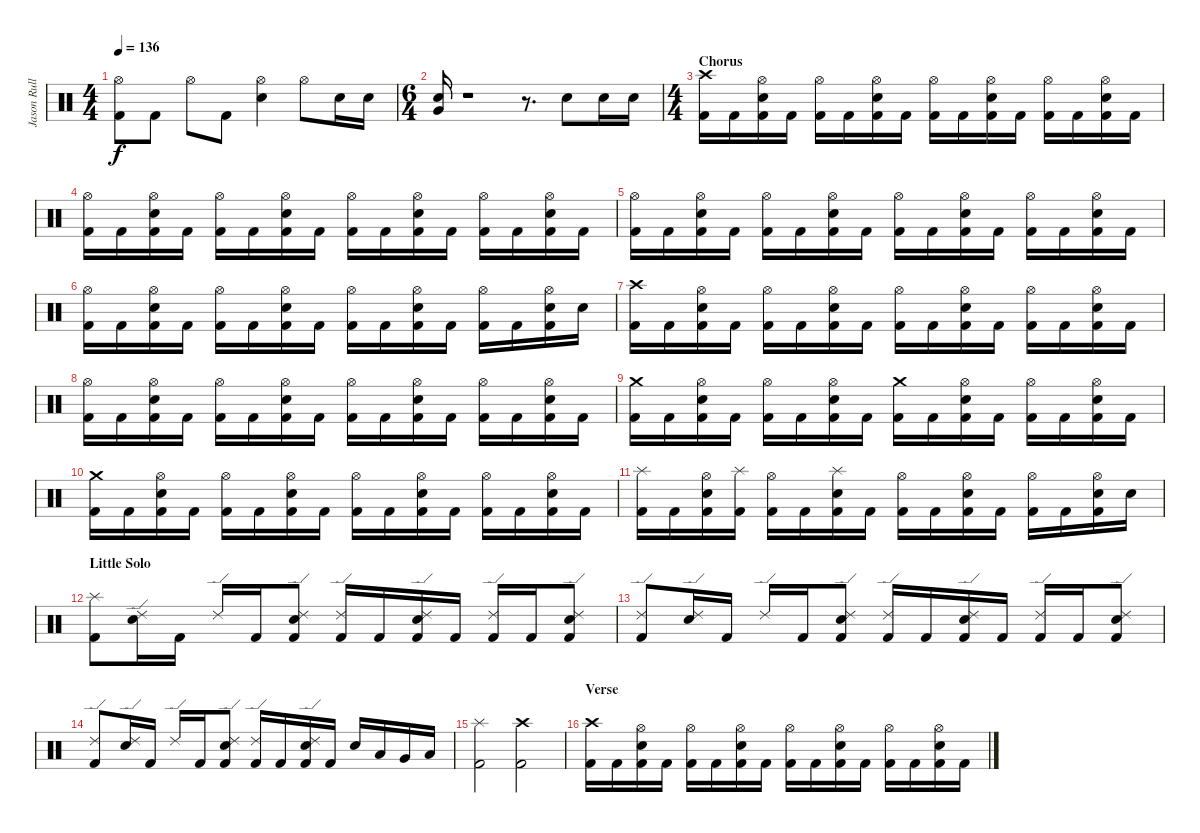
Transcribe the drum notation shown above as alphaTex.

\track ("Jason Rullo" "Jason Rull") {instrument percussion}
\staff {score}
\articulation defaults
\ts (4 4)
\tempo 136
\clef neutral
\ks c
("Kick (hit) 2" "Hi-Hat (open)").8{dy f} "Kick (hit) 2".8 "Hi-Hat (open)".8 "Kick (hit) 2".8 ("Electric Snare (hit)" "Hi-Hat (open)").4 "Hi-Hat (open)".8 "Electric Snare (hit)".16 "Electric Snare (hit)".16 |
\ts (6 4)
("Very Low Tom (hit)" "Electric Snare (hit)").16 r.1 r.8{d} "Electric Snare (hit)".8 "Electric Snare (hit)".16 "Electric Snare (hit)".16 |
\ts (4 4)
\section ("" "Chorus")
("Kick (hit) 2" "Crash high (hit)").16 "Kick (hit) 2".16 ("Hi-Hat (open)" "Electric Snare (hit)" "Kick (hit) 2").16 "Kick (hit) 2".16 ("Hi-Hat (open)" "Kick (hit) 2").16 "Kick (hit) 2".16 ("Hi-Hat (open)" "Electric Snare (hit)" "Kick (hit) 2").16 "Kick (hit) 2".16 ("Hi-Hat (open)" "Kick (hit) 2").16 "Kick (hit) 2".16 ("Hi-Hat (open)" "Electric Snare (hit)" "Kick (hit) 2").16 "Kick (hit) 2".16 ("Hi-Hat (open)" "Kick (hit) 2").16 "Kick (hit) 2".16 ("Hi-Hat (open)" "Electric Snare (hit)" "Kick (hit) 2").16 "Kick (hit) 2".16 |
("Kick (hit) 2" "Hi-Hat (open)").16 "Kick (hit) 2".16 ("Kick (hit) 2" "Electric Snare (hit)" "Hi-Hat (open)").16 "Kick (hit) 2".16 ("Kick (hit) 2" "Hi-Hat (open)").16 "Kick (hit) 2".16 ("Kick (hit) 2" "Electric Snare (hit)" "Hi-Hat (open)").16 "Kick (hit) 2".16 ("Kick (hit) 2" "Hi-Hat (open)").16 "Kick (hit) 2".16 ("Kick (hit) 2" "Electric Snare (hit)" "Hi-Hat (open)").16 "Kick (hit) 2".16 ("Kick (hit) 2" "Hi-Hat (open)").16 "Kick (hit) 2".16 ("Kick (hit) 2" "Electric Snare (hit)" "Hi-Hat (open)").16 "Kick (hit) 2".16 |
("Kick (hit) 2" "Hi-Hat (open)").16 "Kick (hit) 2".16 ("Kick (hit) 2" "Electric Snare (hit)" "Hi-Hat (open)").16 "Kick (hit) 2".16 ("Kick (hit) 2" "Hi-Hat (open)").16 "Kick (hit) 2".16 ("Kick (hit) 2" "Electric Snare (hit)" "Hi-Hat (open)").16 "Kick (hit) 2".16 ("Kick (hit) 2" "Hi-Hat (open)").16 "Kick (hit) 2".16 ("Kick (hit) 2" "Electric Snare (hit)" "Hi-Hat (open)").16 "Kick (hit) 2".16 ("Kick (hit) 2" "Hi-Hat (open)").16 "Kick (hit) 2".16 ("Kick (hit) 2" "Electric Snare (hit)" "Hi-Hat (open)").16 "Kick (hit) 2".16 |
("Kick (hit) 2" "Hi-Hat (open)").16 "Kick (hit) 2".16 ("Kick (hit) 2" "Electric Snare (hit)" "Hi-Hat (open)").16 "Kick (hit) 2".16 ("Kick (hit) 2" "Hi-Hat (open)").16 "Kick (hit) 2".16 ("Kick (hit) 2" "Electric Snare (hit)" "Hi-Hat (open)").16 "Kick (hit) 2".16 ("Kick (hit) 2" "Hi-Hat (open)").16 "Kick (hit) 2".16 ("Kick (hit) 2" "Electric Snare (hit)" "Hi-Hat (open)").16 "Kick (hit) 2".16 ("Kick (hit) 2" "Hi-Hat (open)").16 "Kick (hit) 2".16 ("Kick (hit) 2" "Electric Snare (hit)" "Hi-Hat (open)").16 "Electric Snare (hit)".16 |
("Kick (hit) 2" "Crash high (hit)").16 "Kick (hit) 2".16 ("Hi-Hat (open)" "Electric Snare (hit)" "Kick (hit) 2").16 "Kick (hit) 2".16 ("Hi-Hat (open)" "Kick (hit) 2").16 "Kick (hit) 2".16 ("Hi-Hat (open)" "Electric Snare (hit)" "Kick (hit) 2").16 "Kick (hit) 2".16 ("Hi-Hat (open)" "Kick (hit) 2").16 "Kick (hit) 2".16 ("Hi-Hat (open)" "Electric Snare (hit)" "Kick (hit) 2").16 "Kick (hit) 2".16 ("Hi-Hat (open)" "Kick (hit) 2").16 "Kick (hit) 2".16 ("Hi-Hat (open)" "Electric Snare (hit)" "Kick (hit) 2").16 "Kick (hit) 2".16 |
("Kick (hit) 2" "Hi-Hat (open)").16 "Kick (hit) 2".16 ("Kick (hit) 2" "Electric Snare (hit)" "Hi-Hat (open)").16 "Kick (hit) 2".16 ("Kick (hit) 2" "Hi-Hat (open)").16 "Kick (hit) 2".16 ("Kick (hit) 2" "Electric Snare (hit)" "Hi-Hat (open)").16 "Kick (hit) 2".16 ("Kick (hit) 2" "Hi-Hat (open)").16 "Kick (hit) 2".16 ("Kick (hit) 2" "Electric Snare (hit)" "Hi-Hat (open)").16 "Kick (hit) 2".16 ("Kick (hit) 2" "Hi-Hat (open)").16 "Kick (hit) 2".16 ("Kick (hit) 2" "Electric Snare (hit)" "Hi-Hat (open)").16 "Kick (hit) 2".16 |
("Crash medium (hit)" "Kick (hit) 2").16 "Kick (hit) 2".16 ("Kick (hit) 2" "Electric Snare (hit)" "Hi-Hat (open)").16 "Kick (hit) 2".16 ("Kick (hit) 2" "Hi-Hat (open)").16 "Kick (hit) 2".16 ("Kick (hit) 2" "Electric Snare (hit)" "Hi-Hat (open)").16 "Kick (hit) 2".16 ("Crash medium (hit)" "Kick (hit) 2").16 "Kick (hit) 2".16 ("Kick (hit) 2" "Electric Snare (hit)" "Hi-Hat (open)").16 "Kick (hit) 2".16 ("Kick (hit) 2" "Hi-Hat (open)").16 "Kick (hit) 2".16 ("Kick (hit) 2" "Electric Snare (hit)" "Hi-Hat (open)").16 "Kick (hit) 2".16 |
("Crash medium (hit)" "Kick (hit) 2").16 "Kick (hit) 2".16 ("Kick (hit) 2" "Electric Snare (hit)" "Hi-Hat (open)").16 "Kick (hit) 2".16 ("Kick (hit) 2" "Hi-Hat (open)").16 "Kick (hit) 2".16 ("Kick (hit) 2" "Electric Snare (hit)" "Hi-Hat (open)").16 "Kick (hit) 2".16 ("Kick (hit) 2" "Hi-Hat (open)").16 "Kick (hit) 2".16 ("Kick (hit) 2" "Electric Snare (hit)" "Hi-Hat (open)").16 "Kick (hit) 2".16 ("Kick (hit) 2" "Hi-Hat (open)").16 "Kick (hit) 2".16 ("Kick (hit) 2" "Electric Snare (hit)" "Hi-Hat (open)").16 "Kick (hit) 2".16 |
("Splash (hit)" "Kick (hit) 2").16 "Kick (hit) 2".16 ("Hi-Hat (open)" "Kick (hit) 2" "Electric Snare (hit)").16 ("Splash (hit)" "Kick (hit) 2").16 ("Hi-Hat (open)" "Kick (hit) 2").16 "Kick (hit) 2".16 ("Splash (hit)" "Kick (hit) 2" "Electric Snare (hit)").16 "Kick (hit) 2".16 ("Kick (hit) 2" "Hi-Hat (open)").16 "Kick (hit) 2".16 ("Kick (hit) 2" "Electric Snare (hit)" "Hi-Hat (open)").16 "Kick (hit) 2".16 ("Kick (hit) 2" "Hi-Hat (open)").16 "Kick (hit) 2".16 ("Kick (hit) 2" "Electric Snare (hit)" "Hi-Hat (open)").16 "Electric Snare (hit)".16 |
\section ("" "Little Solo")
("Splash (hit)" "Kick (hit) 2").8 ("Ride (edge) 2" "Electric Snare (hit)").16 "Kick (hit) 2".16 "Ride (edge) 2".16 "Kick (hit) 2".16 ("Ride (edge) 2" "Kick (hit) 2" "Electric Snare (hit)").8 ("Ride (edge) 2" "Kick (hit) 2").16 "Kick (hit) 2".16 ("Ride (edge) 2" "Kick (hit) 2" "Electric Snare (hit)").16 "Kick (hit) 2".16 ("Ride (edge) 2" "Kick (hit) 2").16 "Kick (hit) 2".16 ("Ride (edge) 2" "Kick (hit) 2" "Electric Snare (hit)").8 |
("Ride (edge) 2" "Kick (hit) 2").8 ("Ride (edge) 2" "Electric Snare (hit)").16 "Kick (hit) 2".16 "Ride (edge) 2".16 "Kick (hit) 2".16 ("Ride (edge) 2" "Kick (hit) 2" "Electric Snare (hit)").8 ("Ride (edge) 2" "Kick (hit) 2").16 "Kick (hit) 2".16 ("Ride (edge) 2" "Kick (hit) 2" "Electric Snare (hit)").16 "Kick (hit) 2".16 ("Ride (edge) 2" "Kick (hit) 2").16 "Kick (hit) 2".16 ("Ride (edge) 2" "Kick (hit) 2" "Electric Snare (hit)").8 |
("Ride (edge) 2" "Kick (hit) 2").8 ("Ride (edge) 2" "Electric Snare (hit)").16 "Kick (hit) 2".16 "Ride (edge) 2".16 "Kick (hit) 2".16 ("Ride (edge) 2" "Kick (hit) 2" "Electric Snare (hit)").8 ("Ride (edge) 2" "Kick (hit) 2").16 "Kick (hit) 2".16 ("Ride (edge) 2" "Kick (hit) 2" "Electric Snare (hit)").16 "Kick (hit) 2".16 "Electric Snare (hit)".16 "Low Tom (hit)".16 "Very Low Tom (hit)".16 "Low Floor Tom (hit)".16 |
("Splash (hit)" "Kick (hit) 2").2 ("Crash high (hit)" "Kick (hit) 2").2 |
\section ("" "Verse")
("Kick (hit) 2" "Crash high (hit)").16 "Kick (hit) 2".16 ("Hi-Hat (open)" "Electric Snare (hit)" "Kick (hit) 2").16 "Kick (hit) 2".16 ("Hi-Hat (open)" "Kick (hit) 2").16 "Kick (hit) 2".16 ("Hi-Hat (open)" "Electric Snare (hit)" "Kick (hit) 2").16 "Kick (hit) 2".16 ("Hi-Hat (open)" "Kick (hit) 2").16 "Kick (hit) 2".16 ("Hi-Hat (open)" "Electric Snare (hit)" "Kick (hit) 2").16 "Kick (hit) 2".16 ("Hi-Hat (open)" "Kick (hit) 2").16 "Kick (hit) 2".16 ("Hi-Hat (open)" "Electric Snare (hit)" "Kick (hit) 2").16 "Kick (hit) 2".16
